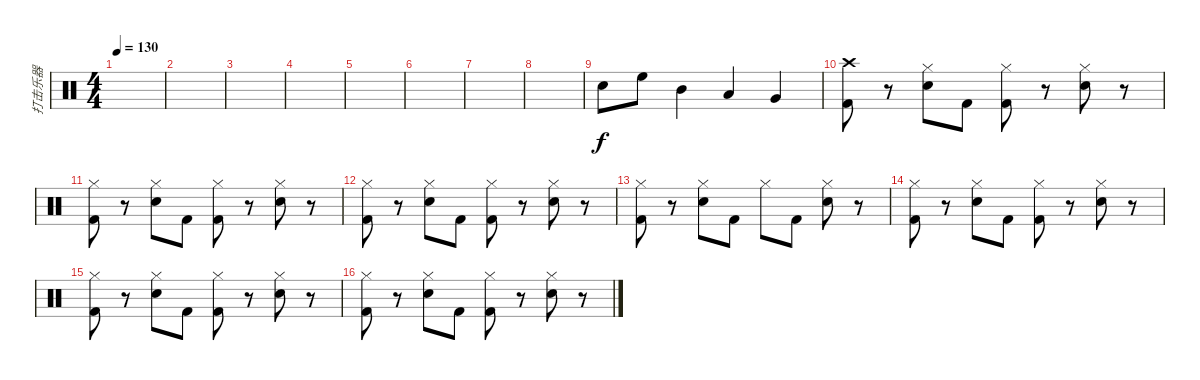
\track ("打击乐器" "打击乐器") {instrument percussion}
\staff {score}
\articulation defaults
\ts (4 4)
\tempo 130
\clef neutral
\ks c
|
|
|
|
|
|
|
|
"Electric Snare (hit)".8 "High Floor Tom (hit)".8 "Mid Tom (hit)".4 "Low Tom (hit)".4 "Very Low Tom (hit)".4 |
("Crash high (hit)" "Kick (hit) 2").8 r.8 ("Hi-Hat (closed)" "Electric Snare (hit)").8 "Kick (hit) 2".8 ("Hi-Hat (closed)" "Kick (hit) 2").8 r.8 ("Hi-Hat (closed)" "Electric Snare (hit)").8 r.8 |
("Hi-Hat (closed)" "Kick (hit) 2").8 r.8 ("Hi-Hat (closed)" "Electric Snare (hit)").8 "Kick (hit) 2".8 ("Hi-Hat (closed)" "Kick (hit) 2").8 r.8 ("Hi-Hat (closed)" "Electric Snare (hit)").8 r.8 |
("Hi-Hat (closed)" "Kick (hit) 2").8 r.8 ("Hi-Hat (closed)" "Electric Snare (hit)").8 "Kick (hit) 2".8 ("Hi-Hat (closed)" "Kick (hit) 2").8 r.8 ("Hi-Hat (closed)" "Electric Snare (hit)").8 r.8 |
("Hi-Hat (closed)" "Kick (hit) 2").8 r.8 ("Hi-Hat (closed)" "Electric Snare (hit)").8 "Kick (hit) 2".8 "Hi-Hat (closed)".8 "Kick (hit) 2".8 ("Hi-Hat (closed)" "Electric Snare (hit)").8 r.8 |
("Hi-Hat (closed)" "Kick (hit) 2").8 r.8 ("Hi-Hat (closed)" "Electric Snare (hit)").8 "Kick (hit) 2".8 ("Hi-Hat (closed)" "Kick (hit) 2").8 r.8 ("Hi-Hat (closed)" "Electric Snare (hit)").8 r.8 |
("Hi-Hat (closed)" "Kick (hit) 2").8 r.8 ("Hi-Hat (closed)" "Electric Snare (hit)").8 "Kick (hit) 2".8 ("Hi-Hat (closed)" "Kick (hit) 2").8 r.8 ("Hi-Hat (closed)" "Electric Snare (hit)").8 r.8 |
("Hi-Hat (closed)" "Kick (hit) 2").8 r.8 ("Hi-Hat (closed)" "Electric Snare (hit)").8 "Kick (hit) 2".8 ("Hi-Hat (closed)" "Kick (hit) 2").8 r.8 ("Hi-Hat (closed)" "Electric Snare (hit)").8 r.8
